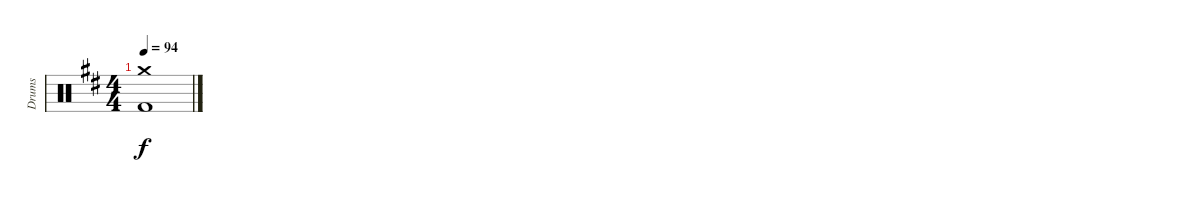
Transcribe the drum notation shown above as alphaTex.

\track ("Drums" "Drums") {instrument percussion}
\staff {score}
\articulation defaults
\ts (4 4)
\tempo 94
\clef neutral
\ks d
("Crash medium (hit)" "Kick (hit) 2").1{dy f}
